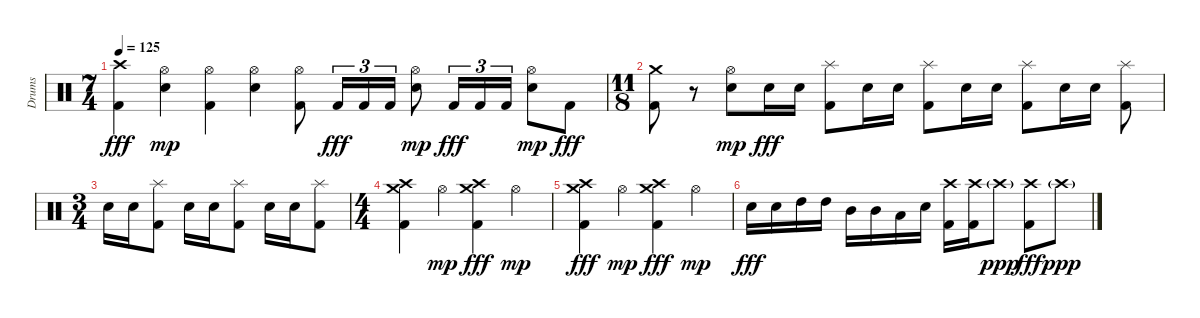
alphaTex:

\track ("Drums" "Drums") {instrument percussion}
\staff {score}
\articulation defaults
\ts (7 4)
\tempo 125
\clef neutral
\ks c
("Kick (hit) 2" "Crash high (hit)").4{dy fff} ("Electric Snare (hit)" "Hi-Hat (open)").4{dy mp} ("Kick (hit) 2" "Hi-Hat (open)").4 ("Electric Snare (hit)" "Hi-Hat (open)").4 ("Kick (hit) 2" "Hi-Hat (open)").8 "Kick (hit) 2".16{tu (3 2) dy fff} "Kick (hit) 2".16{tu (3 2)} "Kick (hit) 2".16{tu (3 2)} ("Electric Snare (hit)" "Hi-Hat (open)").8{dy mp} "Kick (hit) 2".16{tu (3 2) dy fff} "Kick (hit) 2".16{tu (3 2)} "Kick (hit) 2".16{tu (3 2)} ("Electric Snare (hit)" "Hi-Hat (open)").8{dy mp} "Kick (hit) 2".8{dy fff} |
\ts (11 8)
("Kick (hit) 2" "Crash medium (hit)").8 r.8 ("Electric Snare (hit)" "Hi-Hat (open)").8{dy mp} "Electric Snare (hit)".16{dy fff} "Electric Snare (hit)".16 ("Kick (hit) 2" "Splash (hit)").8 "Electric Snare (hit)".16 "Electric Snare (hit)".16 ("Kick (hit) 2" "Splash (hit)").8 "Electric Snare (hit)".16 "Electric Snare (hit)".16 ("Kick (hit) 2" "Splash (hit)").8 "Electric Snare (hit)".16 "Electric Snare (hit)".16 ("Kick (hit) 2" "Splash (hit)").8 |
\ts (3 4)
"Electric Snare (hit)".16 "Electric Snare (hit)".16 ("Kick (hit) 2" "Splash (hit)").8 "Electric Snare (hit)".16 "Electric Snare (hit)".16 ("Kick (hit) 2" "Splash (hit)").8 "Electric Snare (hit)".16 "Electric Snare (hit)".16 ("Kick (hit) 2" "Splash (hit)").8 |
\ts (4 4)
("Kick (hit) 2" "Crash medium (hit)" "Crash high (hit)").4 "Hi-Hat (open)".4{dy mp} ("Kick (hit) 2" "Crash medium (hit)" "Crash high (hit)").4{dy fff} "Hi-Hat (open)".4{dy mp} |
("Kick (hit) 2" "Crash medium (hit)" "Crash high (hit)").4{dy fff} "Hi-Hat (open)".4{dy mp} ("Kick (hit) 2" "Crash medium (hit)" "Crash high (hit)").4{dy fff} "Hi-Hat (open)".4{dy mp} |
"Electric Snare (hit)".16{dy fff} "Electric Snare (hit)".16 "High Tom (hit)".16 "High Tom (hit)".16 "Mid Tom (hit)".16 "Mid Tom (hit)".16 "Low Tom (hit)".16 "Electric Snare (hit)".16 ("Kick (hit) 2" "Crash high (hit)").16 ("Kick (hit) 2" "Crash high (hit)").16 "Crash high (hit)"{g}.8{dy ppp} ("Kick (hit) 2" "Crash high (hit)").8{dy fff} "Crash high (hit)"{g}.8{dy ppp}
